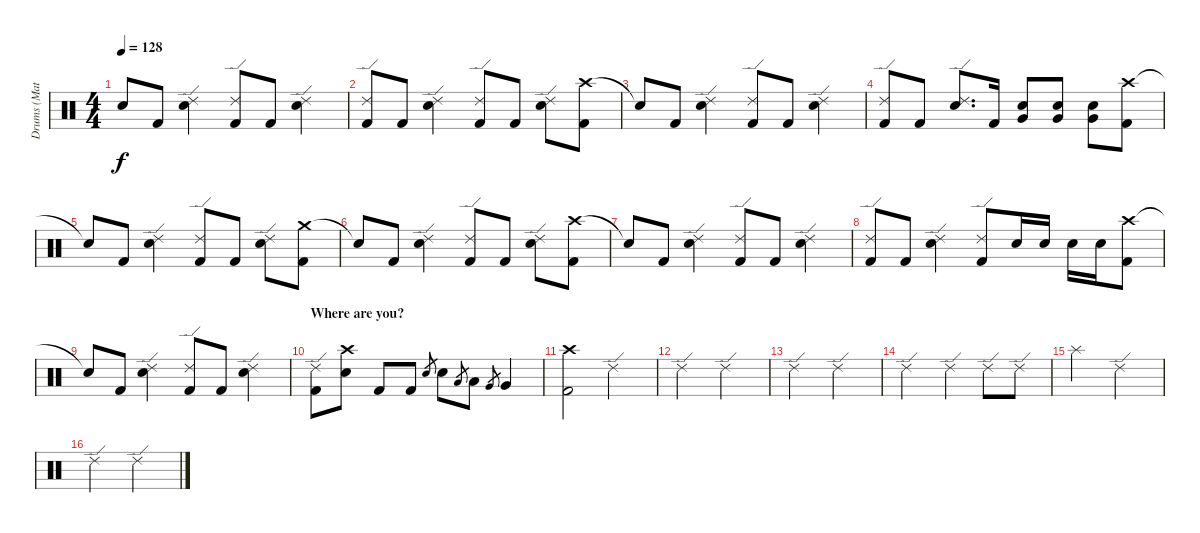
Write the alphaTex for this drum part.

\track ("Drums (Matt)" "Drums (Mat") {instrument percussion}
\staff {score}
\articulation defaults
\ts (4 4)
\tempo 128
\clef neutral
\ks c "Snare (hit)"{t}.8{dy f} "Kick (hit) 2".8
("Ride (edge) 2" "Snare (hit) 2").4 ("Ride (edge) 2" "Kick (hit) 2").8 "Kick (hit) 2".8 ("Ride (edge) 2" "Snare (hit) 2").4 |
("Ride (edge) 2" "Kick (hit) 2").8 "Kick (hit) 2".8 ("Ride (edge) 2" "Snare (hit) 2").4 ("Ride (edge) 2" "Kick (hit) 2").8 "Kick (hit) 2".8 ("Ride (edge) 2" "Snare (hit) 2").8 ("Crash high (hit)" "Kick (hit) 2").8 |
"Snare (hit)"{t}.8 "Kick (hit) 2".8 ("Ride (edge) 2" "Snare (hit) 2").4 ("Ride (edge) 2" "Kick (hit) 2").8 "Kick (hit) 2".8 ("Ride (edge) 2" "Snare (hit) 2").4 |
("Ride (edge) 2" "Kick (hit) 2").8 "Kick (hit) 2".8 ("Ride (edge) 2" "Snare (hit) 2").8{d} "Kick (hit) 2".16 ("Very Low Tom (hit)" "Snare (hit) 2").8 ("Very Low Tom (hit)" "Snare (hit) 2").8 ("Very Low Tom (hit)" "Snare (hit) 2").8 ("Crash high (hit)" "Kick (hit) 2").8 |
"Snare (hit)"{t}.8 "Kick (hit) 2".8 ("Ride (edge) 2" "Snare (hit) 2").4 ("Ride (edge) 2" "Kick (hit) 2").8 "Kick (hit) 2".8 ("Ride (edge) 2" "Snare (hit) 2").8 ("Crash medium (hit)" "Kick (hit) 2").8 |
"Snare (hit)"{t}.8 "Kick (hit) 2".8 ("Ride (edge) 2" "Snare (hit) 2").4 ("Ride (edge) 2" "Kick (hit) 2").8 "Kick (hit) 2".8 ("Ride (edge) 2" "Snare (hit) 2").8 ("Crash high (hit)" "Kick (hit) 2").8 |
"Snare (hit)"{t}.8 "Kick (hit) 2".8 ("Ride (edge) 2" "Snare (hit) 2").4 ("Ride (edge) 2" "Kick (hit) 2").8 "Kick (hit) 2".8 ("Ride (edge) 2" "Snare (hit) 2").4 |
("Ride (edge) 2" "Kick (hit) 2").8 "Kick (hit) 2".8 ("Ride (edge) 2" "Snare (hit) 2").4 ("Ride (edge) 2" "Kick (hit) 2").8 "Snare (hit) 2".16 "Snare (hit) 2".16 "Snare (hit) 2".16 "Snare (hit) 2".16 ("Crash high (hit)" "Kick (hit) 2").8 |
"Snare (hit)"{t}.8 "Kick (hit) 2".8 ("Ride (edge) 2" "Snare (hit) 2").4 ("Ride (edge) 2" "Kick (hit) 2").8 "Kick (hit) 2".8 ("Ride (edge) 2" "Snare (hit) 2").4 |
\section ("" "Where are you?")
("Ride (edge) 2" "Kick (hit) 2").8 ("Crash high (hit)" "Snare (hit) 2").8 "Kick (hit) 2".8 "Kick (hit) 2".8 "Snare (hit) 2".8{gr} "Snare (hit) 2".8 "Low Tom (hit)".8{gr} "Low Tom (hit)".8 "Very Low Tom (hit)".8{gr} "Very Low Tom (hit)".4 |
("Crash high (hit)" "Kick (hit) 2").2 "Ride (edge) 2".2 |
"Ride (edge) 2".2 "Ride (edge) 2".2 |
"Ride (edge) 2".2 "Ride (edge) 2".2 |
"Ride (edge) 2".2 "Ride (edge) 2".4 "Ride (edge) 2".8 "Ride (edge) 2".8 |
"Splash (hit)".2 "Ride (edge) 2".2 |
"Ride (edge) 2".2 "Ride (edge) 2".2
